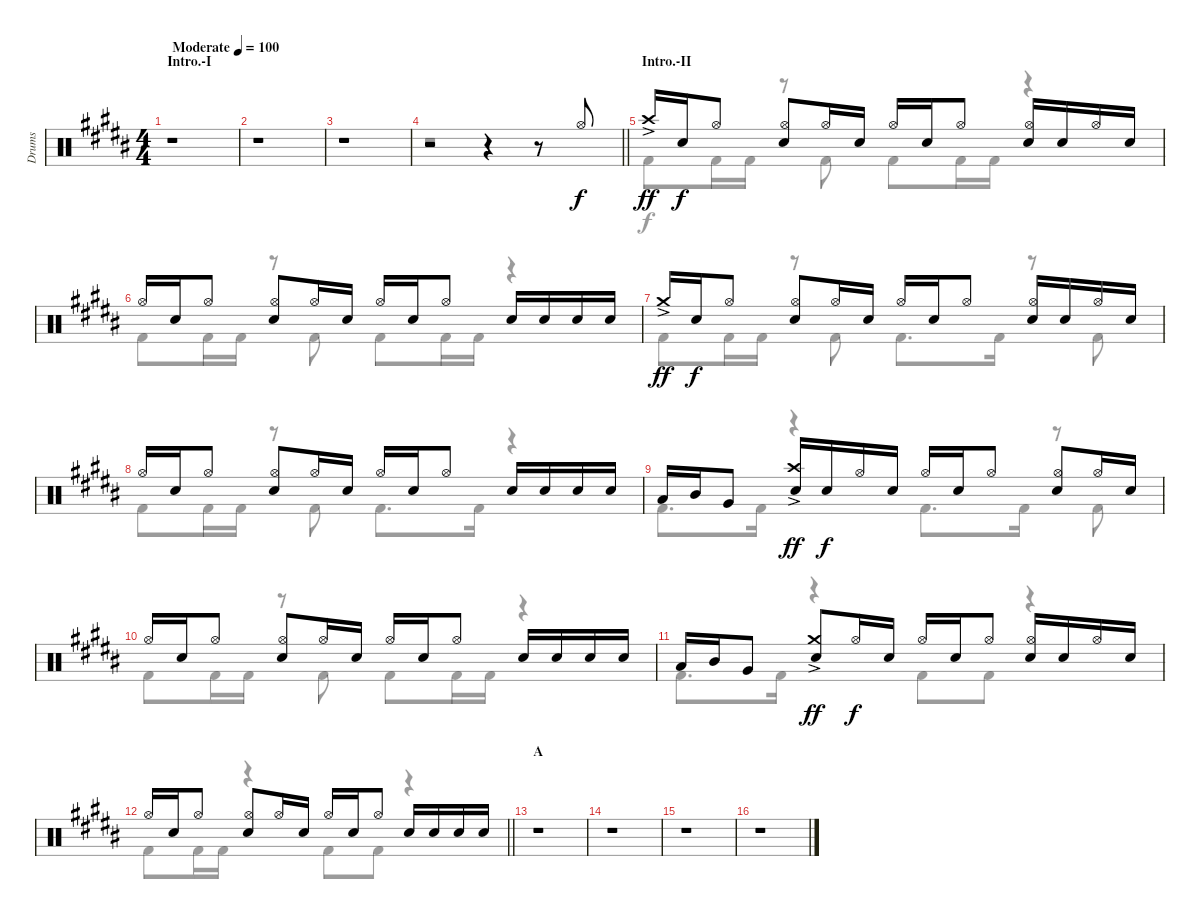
\track ("Drums" "Drums") {instrument percussion}
\staff {score}
\articulation defaults
\voice
\ts (4 4)
\section ("" "Intro.-I")
\tempo (100 "Moderate")
\clef neutral
\ks b
r.1{dy f} |
r.1 |
r.1 |
\barLineRight lightlight
r.2 r.4 r.8 "Hi-Hat (open)".8 |
\section ("" "Intro.-II")
"Crash high (hit)"{ac}.16{dy ff} "Electric Snare (hit)".16{dy f} "Hi-Hat (open)".8 ("Hi-Hat (open)" "Electric Snare (hit)").8 "Hi-Hat (open)".16 "Electric Snare (hit)".16 "Hi-Hat (open)".16 "Electric Snare (hit)".16 "Hi-Hat (open)".8 ("Hi-Hat (open)" "Electric Snare (hit)").16 "Electric Snare (hit)".16 "Hi-Hat (open)".16 "Electric Snare (hit)".16 |
"Hi-Hat (open)".16 "Electric Snare (hit)".16 "Hi-Hat (open)".8 ("Hi-Hat (open)" "Electric Snare (hit)").8 "Hi-Hat (open)".16 "Electric Snare (hit)".16 "Hi-Hat (open)".16 "Electric Snare (hit)".16 "Hi-Hat (open)".8 "Electric Snare (hit)".16 "Electric Snare (hit)".16 "Electric Snare (hit)".16 "Electric Snare (hit)".16 |
"Crash medium (hit)"{ac}.16{dy ff} "Electric Snare (hit)".16{dy f} "Hi-Hat (open)".8 ("Hi-Hat (open)" "Electric Snare (hit)").8 "Hi-Hat (open)".16 "Electric Snare (hit)".16 "Hi-Hat (open)".16 "Electric Snare (hit)".16 "Hi-Hat (open)".8 ("Hi-Hat (open)" "Electric Snare (hit)").16 "Electric Snare (hit)".16 "Hi-Hat (open)".16 "Electric Snare (hit)".16 |
"Hi-Hat (open)".16 "Electric Snare (hit)".16 "Hi-Hat (open)".8 ("Hi-Hat (open)" "Electric Snare (hit)").8 "Hi-Hat (open)".16 "Electric Snare (hit)".16 "Hi-Hat (open)".16 "Electric Snare (hit)".16 "Hi-Hat (open)".8 "Electric Snare (hit)".16 "Electric Snare (hit)".16 "Electric Snare (hit)".16 "Electric Snare (hit)".16 |
"Low Tom (hit)".16 "Mid Tom (hit)".16 "Very Low Tom (hit)".8 ("Crash high (hit)"{ac} "Electric Snare (hit)").16{dy ff} "Electric Snare (hit)".16{dy f} "Hi-Hat (open)".16 "Electric Snare (hit)".16 "Hi-Hat (open)".16 "Electric Snare (hit)".16 "Hi-Hat (open)".8 ("Hi-Hat (open)" "Electric Snare (hit)").8 "Hi-Hat (open)".16 "Electric Snare (hit)".16 |
"Hi-Hat (open)".16 "Electric Snare (hit)".16 "Hi-Hat (open)".8 ("Hi-Hat (open)" "Electric Snare (hit)").8 "Hi-Hat (open)".16 "Electric Snare (hit)".16 "Hi-Hat (open)".16 "Electric Snare (hit)".16 "Hi-Hat (open)".8 "Electric Snare (hit)".16 "Electric Snare (hit)".16 "Electric Snare (hit)".16 "Electric Snare (hit)".16 |
"Low Tom (hit)".16 "Mid Tom (hit)".16 "Very Low Tom (hit)".8 ("Crash medium (hit)"{ac} "Electric Snare (hit)").8{dy ff} "Hi-Hat (open)".16{dy f} "Electric Snare (hit)".16 "Hi-Hat (open)".16 "Electric Snare (hit)".16 "Hi-Hat (open)".8 ("Hi-Hat (open)" "Electric Snare (hit)").16 "Electric Snare (hit)".16 "Hi-Hat (open)".16 "Electric Snare (hit)".16 |
\barLineRight lightlight "Hi-Hat (open)".16 "Electric Snare (hit)".16 "Hi-Hat (open)".8
("Hi-Hat (open)" "Electric Snare (hit)").8 "Hi-Hat (open)".16 "Electric Snare (hit)".16 "Hi-Hat (open)".16 "Electric Snare (hit)".16 "Hi-Hat (open)".8 "Electric Snare (hit)".16 "Electric Snare (hit)".16 "Electric Snare (hit)".16 "Electric Snare (hit)".16 |
\section ("" "A")
r.1 |
r.1 |
r.1 |
r.1
\voice
\clef neutral
\ottava regular
\simile none
\ks b
|
|
|
\barLineRight lightlight
r.1 |
"Kick (hit) 2".8 "Kick (hit) 2".16 "Kick (hit) 2".16 r.8 "Kick (hit) 2".8 "Kick (hit) 2".8 "Kick (hit) 2".16 "Kick (hit) 2".16 r.4 |
"Kick (hit) 2".8 "Kick (hit) 2".16 "Kick (hit) 2".16 r.8 "Kick (hit) 2".8 "Kick (hit) 2".8 "Kick (hit) 2".16 "Kick (hit) 2".16 r.4 |
"Kick (hit) 2".8 "Kick (hit) 2".16 "Kick (hit) 2".16 r.8 "Kick (hit) 2".8 "Kick (hit) 2".8{d} "Kick (hit) 2".16 r.8 "Kick (hit) 2".8 |
"Kick (hit) 2".8 "Kick (hit) 2".16 "Kick (hit) 2".16 r.8 "Kick (hit) 2".8 "Kick (hit) 2".8{d} "Kick (hit) 2".16 r.4 |
"Kick (hit) 2".8{d} "Kick (hit) 2".16 r.4 "Kick (hit) 2".8{d} "Kick (hit) 2".16 r.8 "Kick (hit) 2".8 |
"Kick (hit) 2".8 "Kick (hit) 2".16 "Kick (hit) 2".16 r.8 "Kick (hit) 2".8 "Kick (hit) 2".8 "Kick (hit) 2".16 "Kick (hit) 2".16 r.4 |
"Kick (hit) 2".8{d} "Kick (hit) 2".16 r.4 "Kick (hit) 2".8 "Kick (hit) 2".8 r.4 |
\barLineRight lightlight "Kick (hit) 2".8 "Kick (hit) 2".16 "Kick (hit) 2".16
r.4 "Kick (hit) 2".8 "Kick (hit) 2".8 r.4 |
|
|
|
